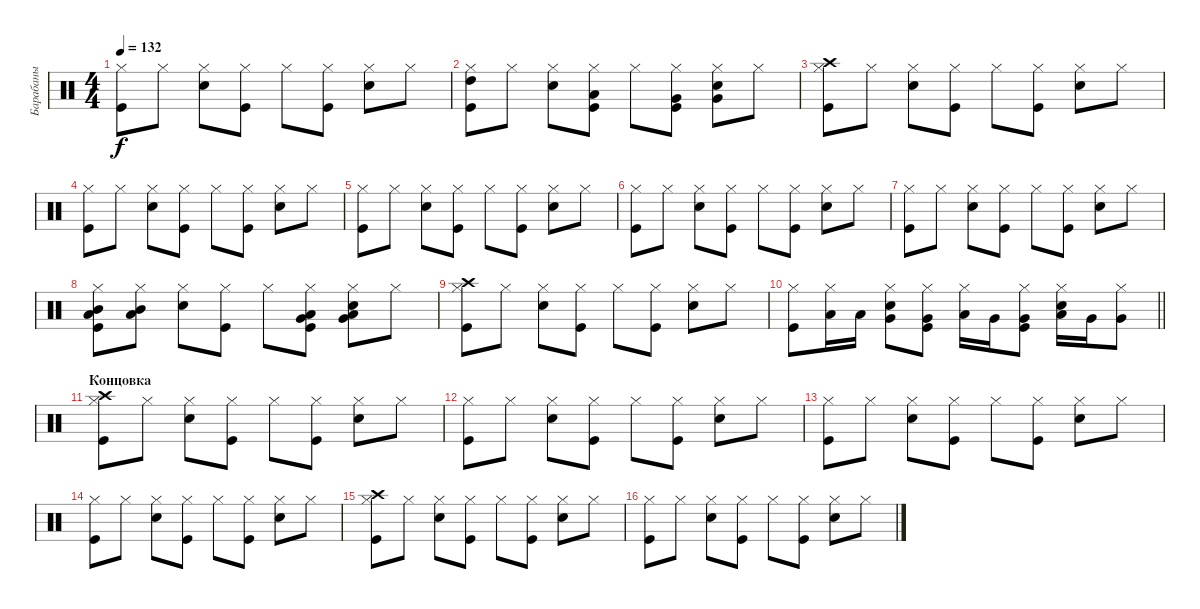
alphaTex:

\track ("Барабаны" "Барабаны") {instrument percussion}
\staff {score}
\articulation defaults
\ts (4 4)
\tempo 132
\clef neutral
\ks c
("Kick (hit)" "Hi-Hat (closed)").8{dy f} "Hi-Hat (closed)".8 ("Snare (hit) 2" "Hi-Hat (closed)").8 ("Kick (hit)" "Hi-Hat (closed)").8 "Hi-Hat (closed)".8 ("Kick (hit)" "Hi-Hat (closed)").8 ("Snare (hit) 2" "Hi-Hat (closed)").8 "Hi-Hat (closed)".8 |
("Kick (hit)" "Hi-Hat (closed)" "High Tom (hit)").8 "Hi-Hat (closed)".8 ("Snare (hit) 2" "Hi-Hat (closed)").8 ("Kick (hit)" "Hi-Hat (closed)" "Low Tom (hit)").8 "Hi-Hat (closed)".8 ("Kick (hit)" "Hi-Hat (closed)" "Very Low Tom (hit)").8 ("Snare (hit) 2" "Hi-Hat (closed)" "Very Low Tom (hit)").8 "Hi-Hat (closed)".8 |
("Kick (hit)" "Hi-Hat (closed)" "Crash high (hit)").8 "Hi-Hat (closed)".8 ("Snare (hit) 2" "Hi-Hat (closed)").8 ("Kick (hit)" "Hi-Hat (closed)").8 "Hi-Hat (closed)".8 ("Kick (hit)" "Hi-Hat (closed)").8 ("Snare (hit) 2" "Hi-Hat (closed)").8 "Hi-Hat (closed)".8 |
("Kick (hit)" "Hi-Hat (closed)").8 "Hi-Hat (closed)".8 ("Snare (hit) 2" "Hi-Hat (closed)").8 ("Kick (hit)" "Hi-Hat (closed)").8 "Hi-Hat (closed)".8 ("Kick (hit)" "Hi-Hat (closed)").8 ("Snare (hit) 2" "Hi-Hat (closed)").8 "Hi-Hat (closed)".8 |
("Kick (hit)" "Hi-Hat (closed)").8 "Hi-Hat (closed)".8 ("Snare (hit) 2" "Hi-Hat (closed)").8 ("Kick (hit)" "Hi-Hat (closed)").8 "Hi-Hat (closed)".8 ("Kick (hit)" "Hi-Hat (closed)").8 ("Snare (hit) 2" "Hi-Hat (closed)").8 "Hi-Hat (closed)".8 |
("Kick (hit)" "Hi-Hat (closed)").8 "Hi-Hat (closed)".8 ("Snare (hit) 2" "Hi-Hat (closed)").8 ("Kick (hit)" "Hi-Hat (closed)").8 "Hi-Hat (closed)".8 ("Kick (hit)" "Hi-Hat (closed)").8 ("Snare (hit) 2" "Hi-Hat (closed)").8 "Hi-Hat (closed)".8 |
("Kick (hit)" "Hi-Hat (closed)").8 "Hi-Hat (closed)".8 ("Snare (hit) 2" "Hi-Hat (closed)").8 ("Kick (hit)" "Hi-Hat (closed)").8 "Hi-Hat (closed)".8 ("Kick (hit)" "Hi-Hat (closed)").8 ("Snare (hit) 2" "Hi-Hat (closed)").8 "Hi-Hat (closed)".8 |
("Kick (hit)" "Hi-Hat (closed)" "Low Tom (hit)" "Mid Tom (hit)").8 ("Hi-Hat (closed)" "Low Tom (hit)" "Mid Tom (hit)").8 ("Snare (hit) 2" "Hi-Hat (closed)").8 ("Kick (hit)" "Hi-Hat (closed)").8 "Hi-Hat (closed)".8 ("Kick (hit)" "Hi-Hat (closed)" "Very Low Tom (hit)" "Low Tom (hit)").8 ("Snare (hit) 2" "Hi-Hat (closed)" "Very Low Tom (hit)" "Low Tom (hit)").8 "Hi-Hat (closed)".8 |
("Kick (hit)" "Hi-Hat (closed)" "Crash high (hit)").8 "Hi-Hat (closed)".8 ("Snare (hit) 2" "Hi-Hat (closed)").8 ("Kick (hit)" "Hi-Hat (closed)").8 "Hi-Hat (closed)".8 ("Kick (hit)" "Hi-Hat (closed)").8 ("Snare (hit) 2" "Hi-Hat (closed)").8 "Hi-Hat (closed)".8 |
\barLineRight lightlight
("Kick (hit)" "Hi-Hat (closed)").8 ("Hi-Hat (closed)" "Low Tom (hit)").16 "Low Tom (hit)".16 ("Snare (hit) 2" "Hi-Hat (closed)" "Very Low Tom (hit)").8 ("Kick (hit)" "Hi-Hat (closed)" "Very Low Tom (hit)").8 ("Hi-Hat (closed)" "Low Tom (hit)").16 "Very Low Tom (hit)".16 ("Kick (hit)" "Hi-Hat (closed)" "Very Low Tom (hit)").8 ("Snare (hit) 2" "Hi-Hat (closed)" "Low Tom (hit)").16 "Very Low Tom (hit)".16 ("Hi-Hat (closed)" "Very Low Tom (hit)").8 |
\section ("" "Концовка")
("Kick (hit)" "Hi-Hat (closed)" "Crash high (hit)").8 "Hi-Hat (closed)".8 ("Snare (hit) 2" "Hi-Hat (closed)").8 ("Kick (hit)" "Hi-Hat (closed)").8 "Hi-Hat (closed)".8 ("Kick (hit)" "Hi-Hat (closed)").8 ("Snare (hit) 2" "Hi-Hat (closed)").8 "Hi-Hat (closed)".8 |
("Kick (hit)" "Hi-Hat (closed)").8 "Hi-Hat (closed)".8 ("Snare (hit) 2" "Hi-Hat (closed)").8 ("Kick (hit)" "Hi-Hat (closed)").8 "Hi-Hat (closed)".8 ("Kick (hit)" "Hi-Hat (closed)").8 ("Snare (hit) 2" "Hi-Hat (closed)").8 "Hi-Hat (closed)".8 |
("Kick (hit)" "Hi-Hat (closed)").8 "Hi-Hat (closed)".8 ("Snare (hit) 2" "Hi-Hat (closed)").8 ("Kick (hit)" "Hi-Hat (closed)").8 "Hi-Hat (closed)".8 ("Kick (hit)" "Hi-Hat (closed)").8 ("Snare (hit) 2" "Hi-Hat (closed)").8 "Hi-Hat (closed)".8 |
("Kick (hit)" "Hi-Hat (closed)").8 "Hi-Hat (closed)".8 ("Snare (hit) 2" "Hi-Hat (closed)").8 ("Kick (hit)" "Hi-Hat (closed)").8 "Hi-Hat (closed)".8 ("Kick (hit)" "Hi-Hat (closed)").8 ("Snare (hit) 2" "Hi-Hat (closed)").8 "Hi-Hat (closed)".8 |
("Kick (hit)" "Hi-Hat (closed)" "Crash high (hit)").8 "Hi-Hat (closed)".8 ("Snare (hit) 2" "Hi-Hat (closed)").8 ("Kick (hit)" "Hi-Hat (closed)").8 "Hi-Hat (closed)".8 ("Kick (hit)" "Hi-Hat (closed)").8 ("Snare (hit) 2" "Hi-Hat (closed)").8 "Hi-Hat (closed)".8 |
("Kick (hit)" "Hi-Hat (closed)").8 "Hi-Hat (closed)".8 ("Snare (hit) 2" "Hi-Hat (closed)").8 ("Kick (hit)" "Hi-Hat (closed)").8 "Hi-Hat (closed)".8 ("Kick (hit)" "Hi-Hat (closed)").8 ("Snare (hit) 2" "Hi-Hat (closed)").8 "Hi-Hat (closed)".8
